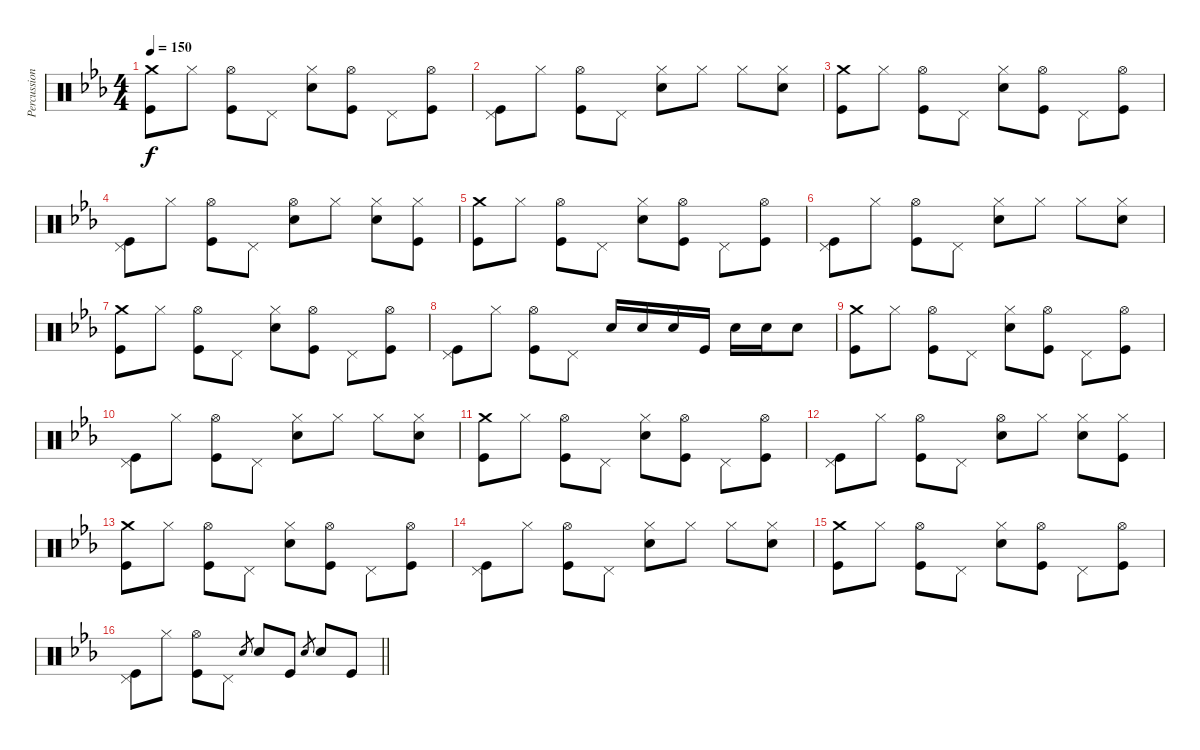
\track ("Percussion" "Percussion") {instrument percussion}
\staff {score}
\articulation defaults
\ts (4 4)
\tempo 150
\clef neutral
\ks eb
("Crash medium (hit)" "Kick (hit)").8{dy f} "Hi-Hat (closed)".8 ("Hi-Hat (open)" "Kick (hit)").8 "Pedal Hi-Hat (hit)".8 ("Hi-Hat (closed)" "Electric Snare (hit)").8 ("Hi-Hat (open)" "Kick (hit)").8 "Pedal Hi-Hat (hit)".8 ("Hi-Hat (open)" "Kick (hit)").8 |
("Pedal Hi-Hat (hit)" "Kick (hit)").8 "Hi-Hat (closed)".8 ("Hi-Hat (open)" "Kick (hit)").8 "Pedal Hi-Hat (hit)".8 ("Hi-Hat (closed)" "Electric Snare (hit)").8 "Hi-Hat (closed)".8 "Hi-Hat (closed)".8 ("Hi-Hat (closed)" "Electric Snare (hit)").8 |
("Crash medium (hit)" "Kick (hit)").8 "Hi-Hat (closed)".8 ("Hi-Hat (open)" "Kick (hit)").8 "Pedal Hi-Hat (hit)".8 ("Hi-Hat (closed)" "Electric Snare (hit)").8 ("Hi-Hat (open)" "Kick (hit)").8 "Pedal Hi-Hat (hit)".8 ("Hi-Hat (open)" "Kick (hit)").8 |
("Pedal Hi-Hat (hit)" "Kick (hit)").8 "Hi-Hat (closed)".8 ("Hi-Hat (open)" "Kick (hit)").8 "Pedal Hi-Hat (hit)".8 ("Hi-Hat (open)" "Electric Snare (hit)").8 "Hi-Hat (closed)".8 ("Hi-Hat (closed)" "Electric Snare (hit)").8 ("Hi-Hat (closed)" "Kick (hit)").8 |
("Crash medium (hit)" "Kick (hit)").8 "Hi-Hat (closed)".8 ("Hi-Hat (open)" "Kick (hit)").8 "Pedal Hi-Hat (hit)".8 ("Hi-Hat (closed)" "Electric Snare (hit)").8 ("Hi-Hat (open)" "Kick (hit)").8 "Pedal Hi-Hat (hit)".8 ("Hi-Hat (open)" "Kick (hit)").8 |
("Pedal Hi-Hat (hit)" "Kick (hit)").8 "Hi-Hat (closed)".8 ("Hi-Hat (open)" "Kick (hit)").8 "Pedal Hi-Hat (hit)".8 ("Hi-Hat (closed)" "Electric Snare (hit)").8 "Hi-Hat (closed)".8 "Hi-Hat (closed)".8 ("Hi-Hat (closed)" "Electric Snare (hit)").8 |
("Crash medium (hit)" "Kick (hit)").8 "Hi-Hat (closed)".8 ("Hi-Hat (open)" "Kick (hit)").8 "Pedal Hi-Hat (hit)".8 ("Hi-Hat (closed)" "Electric Snare (hit)").8 ("Hi-Hat (open)" "Kick (hit)").8 "Pedal Hi-Hat (hit)".8 ("Hi-Hat (open)" "Kick (hit)").8 |
("Pedal Hi-Hat (hit)" "Kick (hit)").8 "Hi-Hat (closed)".8 ("Hi-Hat (open)" "Kick (hit)").8 "Pedal Hi-Hat (hit)".8 "Electric Snare (hit)".16 "Electric Snare (hit)".16 "Electric Snare (hit)".16 "Kick (hit)".16 "Electric Snare (hit)".16 "Electric Snare (hit)".16 "Electric Snare (hit)".8 |
("Crash medium (hit)" "Kick (hit)").8 "Hi-Hat (closed)".8 ("Hi-Hat (open)" "Kick (hit)").8 "Pedal Hi-Hat (hit)".8 ("Hi-Hat (closed)" "Electric Snare (hit)").8 ("Hi-Hat (open)" "Kick (hit)").8 "Pedal Hi-Hat (hit)".8 ("Hi-Hat (open)" "Kick (hit)").8 |
("Pedal Hi-Hat (hit)" "Kick (hit)").8 "Hi-Hat (closed)".8 ("Hi-Hat (open)" "Kick (hit)").8 "Pedal Hi-Hat (hit)".8 ("Hi-Hat (closed)" "Electric Snare (hit)").8 "Hi-Hat (closed)".8 "Hi-Hat (closed)".8 ("Hi-Hat (closed)" "Electric Snare (hit)").8 |
("Crash medium (hit)" "Kick (hit)").8 "Hi-Hat (closed)".8 ("Hi-Hat (open)" "Kick (hit)").8 "Pedal Hi-Hat (hit)".8 ("Hi-Hat (closed)" "Electric Snare (hit)").8 ("Hi-Hat (open)" "Kick (hit)").8 "Pedal Hi-Hat (hit)".8 ("Hi-Hat (open)" "Kick (hit)").8 |
("Pedal Hi-Hat (hit)" "Kick (hit)").8 "Hi-Hat (closed)".8 ("Hi-Hat (open)" "Kick (hit)").8 "Pedal Hi-Hat (hit)".8 ("Hi-Hat (open)" "Electric Snare (hit)").8 "Hi-Hat (closed)".8 ("Hi-Hat (closed)" "Electric Snare (hit)").8 ("Hi-Hat (closed)" "Kick (hit)").8 |
("Crash medium (hit)" "Kick (hit)").8 "Hi-Hat (closed)".8 ("Hi-Hat (open)" "Kick (hit)").8 "Pedal Hi-Hat (hit)".8 ("Hi-Hat (closed)" "Electric Snare (hit)").8 ("Hi-Hat (open)" "Kick (hit)").8 "Pedal Hi-Hat (hit)".8 ("Hi-Hat (open)" "Kick (hit)").8 |
("Pedal Hi-Hat (hit)" "Kick (hit)").8 "Hi-Hat (closed)".8 ("Hi-Hat (open)" "Kick (hit)").8 "Pedal Hi-Hat (hit)".8 ("Hi-Hat (closed)" "Electric Snare (hit)").8 "Hi-Hat (closed)".8 "Hi-Hat (closed)".8 ("Hi-Hat (closed)" "Electric Snare (hit)").8 |
("Crash medium (hit)" "Kick (hit)").8 "Hi-Hat (closed)".8 ("Hi-Hat (open)" "Kick (hit)").8 "Pedal Hi-Hat (hit)".8 ("Hi-Hat (closed)" "Electric Snare (hit)").8 ("Hi-Hat (open)" "Kick (hit)").8 "Pedal Hi-Hat (hit)".8 ("Hi-Hat (open)" "Kick (hit)").8 |
\barLineRight lightlight
("Pedal Hi-Hat (hit)" "Kick (hit)").8 "Hi-Hat (closed)".8 ("Hi-Hat (open)" "Kick (hit)").8 "Pedal Hi-Hat (hit)".8 "Electric Snare (hit)".8{gr} "Electric Snare (hit)".8 "Kick (hit)".8 "Electric Snare (hit)".8{gr} "Electric Snare (hit)".8 "Kick (hit)".8
